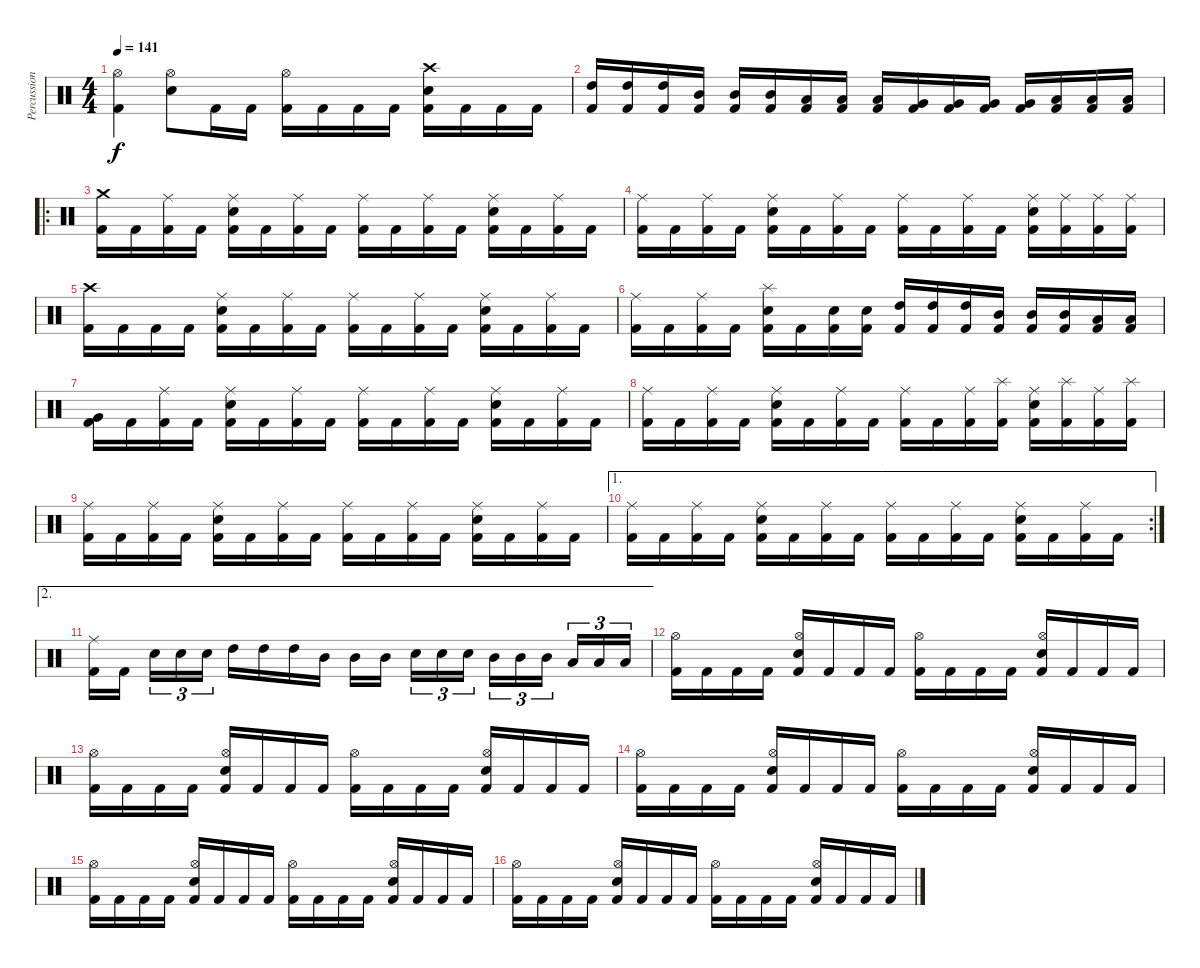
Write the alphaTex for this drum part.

\track ("Percussion" "Percussion") {instrument percussion}
\staff {score}
\articulation defaults
\ts (4 4)
\tempo 141
\clef neutral
\ks c
("Kick (hit) 2" "Hi-Hat (open)").4{dy f} ("Electric Snare (hit)" "Hi-Hat (open)").8 "Kick (hit) 2".16 "Kick (hit) 2".16 ("Kick (hit) 2" "Hi-Hat (open)").16 "Kick (hit) 2".16 "Kick (hit) 2".16 "Kick (hit) 2".16 ("Kick (hit) 2" "Electric Snare (hit)" "Crash high (hit)").16 "Kick (hit) 2".16 "Kick (hit) 2".16 "Kick (hit) 2".16 |
("Kick (hit) 2" "High Tom (hit)").16 ("Kick (hit) 2" "High Tom (hit)").16 ("Kick (hit) 2" "High Tom (hit)").16 ("Kick (hit) 2" "Mid Tom (hit)").16 ("Kick (hit) 2" "Mid Tom (hit)").16 ("Kick (hit) 2" "Mid Tom (hit)").16 ("Kick (hit) 2" "Low Tom (hit)").16 ("Kick (hit) 2" "Low Tom (hit)").16 ("Kick (hit) 2" "Low Tom (hit)").16 ("Kick (hit) 2" "Very Low Tom (hit)").16 ("Kick (hit) 2" "Very Low Tom (hit)").16 ("Kick (hit) 2" "Very Low Tom (hit)").16 ("Kick (hit) 2" "Very Low Tom (hit)").16 ("Kick (hit) 2" "Low Floor Tom (hit)").16 ("Kick (hit) 2" "Low Floor Tom (hit)").16 ("Kick (hit) 2" "Low Floor Tom (hit)").16 |
\ro
("Kick (hit) 2" "Crash medium (hit)").16 "Kick (hit) 2".16 ("Kick (hit) 2" "Ride (middle)").16 "Kick (hit) 2".16 ("Kick (hit) 2" "Electric Snare (hit)" "Ride (middle)").16 "Kick (hit) 2".16 ("Kick (hit) 2" "Ride (middle)").16 "Kick (hit) 2".16 ("Kick (hit) 2" "Ride (middle)").16 "Kick (hit) 2".16 ("Kick (hit) 2" "Ride (middle)").16 "Kick (hit) 2".16 ("Kick (hit) 2" "Electric Snare (hit)" "Ride (middle)").16 "Kick (hit) 2".16 ("Kick (hit) 2" "Ride (middle)").16 "Kick (hit) 2".16 |
("Kick (hit) 2" "Ride (middle)").16 "Kick (hit) 2".16 ("Kick (hit) 2" "Ride (middle)").16 "Kick (hit) 2".16 ("Kick (hit) 2" "Electric Snare (hit)" "Ride (middle)").16 "Kick (hit) 2".16 ("Kick (hit) 2" "Ride (middle)").16 "Kick (hit) 2".16 ("Kick (hit) 2" "Ride (middle)").16 "Kick (hit) 2".16 ("Kick (hit) 2" "Ride (middle)").16 "Kick (hit) 2".16 ("Kick (hit) 2" "Electric Snare (hit)" "Ride (middle)").16 ("Kick (hit) 2" "Ride (middle)").16 ("Kick (hit) 2" "Ride (middle)").16 ("Kick (hit) 2" "Ride (middle)").16 |
("Kick (hit) 2" "Crash high (hit)").16 "Kick (hit) 2".16 "Kick (hit) 2".16 "Kick (hit) 2".16 ("Kick (hit) 2" "Electric Snare (hit)" "Ride (middle)").16 "Kick (hit) 2".16 ("Kick (hit) 2" "Ride (middle)").16 "Kick (hit) 2".16 ("Kick (hit) 2" "Ride (middle)").16 "Kick (hit) 2".16 ("Kick (hit) 2" "Ride (middle)").16 "Kick (hit) 2".16 ("Kick (hit) 2" "Electric Snare (hit)" "Ride (middle)").16 "Kick (hit) 2".16 ("Kick (hit) 2" "Ride (middle)").16 "Kick (hit) 2".16 |
("Kick (hit) 2" "Ride (middle)").16 "Kick (hit) 2".16 ("Kick (hit) 2" "Ride (middle)").16 "Kick (hit) 2".16 ("Kick (hit) 2" "Electric Snare (hit)" "Splash (hit)").16 "Kick (hit) 2".16 ("Kick (hit) 2" "Electric Snare (hit)").16 ("Kick (hit) 2" "Electric Snare (hit)").16 ("Kick (hit) 2" "High Tom (hit)").16 ("Kick (hit) 2" "High Tom (hit)").16 ("Kick (hit) 2" "High Tom (hit)").16 ("Kick (hit) 2" "Mid Tom (hit)").16 ("Kick (hit) 2" "Mid Tom (hit)").16 ("Kick (hit) 2" "Mid Tom (hit)").16 ("Kick (hit) 2" "Low Tom (hit)").16 ("Kick (hit) 2" "Low Tom (hit)").16 |
("Kick (hit) 2" "Very Low Tom (hit)").16 "Kick (hit) 2".16 ("Kick (hit) 2" "Ride (middle)").16 "Kick (hit) 2".16 ("Kick (hit) 2" "Electric Snare (hit)" "Ride (middle)").16 "Kick (hit) 2".16 ("Kick (hit) 2" "Ride (middle)").16 "Kick (hit) 2".16 ("Kick (hit) 2" "Ride (middle)").16 "Kick (hit) 2".16 ("Kick (hit) 2" "Ride (middle)").16 "Kick (hit) 2".16 ("Kick (hit) 2" "Electric Snare (hit)" "Ride (middle)").16 "Kick (hit) 2".16 ("Kick (hit) 2" "Ride (middle)").16 "Kick (hit) 2".16 |
("Kick (hit) 2" "Ride (middle)").16 "Kick (hit) 2".16 ("Kick (hit) 2" "Ride (middle)").16 "Kick (hit) 2".16 ("Kick (hit) 2" "Electric Snare (hit)" "Ride (middle)").16 "Kick (hit) 2".16 ("Kick (hit) 2" "Ride (middle)").16 "Kick (hit) 2".16 ("Kick (hit) 2" "Ride (middle)").16 "Kick (hit) 2".16 ("Kick (hit) 2" "Ride (middle)").16 ("Kick (hit) 2" "Splash (hit)").16 ("Kick (hit) 2" "Electric Snare (hit)" "Ride (middle)").16 ("Kick (hit) 2" "Splash (hit)").16 ("Kick (hit) 2" "Ride (middle)").16 ("Kick (hit) 2" "Splash (hit)").16 |
("Kick (hit) 2" "Ride (middle)").16 "Kick (hit) 2".16 ("Kick (hit) 2" "Ride (middle)").16 "Kick (hit) 2".16 ("Kick (hit) 2" "Electric Snare (hit)" "Ride (middle)").16 "Kick (hit) 2".16 ("Kick (hit) 2" "Ride (middle)").16 "Kick (hit) 2".16 ("Kick (hit) 2" "Ride (middle)").16 "Kick (hit) 2".16 ("Kick (hit) 2" "Ride (middle)").16 "Kick (hit) 2".16 ("Kick (hit) 2" "Electric Snare (hit)" "Ride (middle)").16 "Kick (hit) 2".16 ("Kick (hit) 2" "Ride (middle)").16 "Kick (hit) 2".16 |
\ae 1
\rc 2
("Kick (hit) 2" "Ride (middle)").16 "Kick (hit) 2".16 ("Kick (hit) 2" "Ride (middle)").16 "Kick (hit) 2".16 ("Kick (hit) 2" "Electric Snare (hit)" "Ride (middle)").16 "Kick (hit) 2".16 ("Kick (hit) 2" "Ride (middle)").16 "Kick (hit) 2".16 ("Kick (hit) 2" "Ride (middle)").16 "Kick (hit) 2".16 ("Kick (hit) 2" "Ride (middle)").16 "Kick (hit) 2".16 ("Kick (hit) 2" "Electric Snare (hit)" "Ride (middle)").16 "Kick (hit) 2".16 ("Kick (hit) 2" "Ride (middle)").16 "Kick (hit) 2".16 |
\ae 2
("Kick (hit) 2" "Ride (middle)").16 "Kick (hit) 2".16 "Electric Snare (hit)".16{tu (3 2)} "Electric Snare (hit)".16{tu (3 2)} "Electric Snare (hit)".16{tu (3 2)} "High Tom (hit)".16 "High Tom (hit)".16 "High Tom (hit)".16 "Mid Tom (hit)".16 "Mid Tom (hit)".16 "Mid Tom (hit)".16 "Electric Snare (hit)".16{tu (3 2)} "Electric Snare (hit)".16{tu (3 2)} "Electric Snare (hit)".16{tu (3 2)} "Mid Tom (hit)".16{tu (3 2)} "Mid Tom (hit)".16{tu (3 2)} "Mid Tom (hit)".16{tu (3 2)} "Low Tom (hit)".16{tu (3 2)} "Low Tom (hit)".16{tu (3 2)} "Low Tom (hit)".16{tu (3 2)} |
("Kick (hit) 2" "Hi-Hat (open)").16 "Kick (hit) 2".16 "Kick (hit) 2".16 "Kick (hit) 2".16 ("Kick (hit) 2" "Electric Snare (hit)" "Hi-Hat (open)").16 "Kick (hit) 2".16 "Kick (hit) 2".16 "Kick (hit) 2".16 ("Kick (hit) 2" "Hi-Hat (open)").16 "Kick (hit) 2".16 "Kick (hit) 2".16 "Kick (hit) 2".16 ("Kick (hit) 2" "Electric Snare (hit)" "Hi-Hat (open)").16 "Kick (hit) 2".16 "Kick (hit) 2".16 "Kick (hit) 2".16 |
("Kick (hit) 2" "Hi-Hat (open)").16 "Kick (hit) 2".16 "Kick (hit) 2".16 "Kick (hit) 2".16 ("Kick (hit) 2" "Electric Snare (hit)" "Hi-Hat (open)").16 "Kick (hit) 2".16 "Kick (hit) 2".16 "Kick (hit) 2".16 ("Kick (hit) 2" "Hi-Hat (open)").16 "Kick (hit) 2".16 "Kick (hit) 2".16 "Kick (hit) 2".16 ("Kick (hit) 2" "Electric Snare (hit)" "Hi-Hat (open)").16 "Kick (hit) 2".16 "Kick (hit) 2".16 "Kick (hit) 2".16 |
("Kick (hit) 2" "Hi-Hat (open)").16 "Kick (hit) 2".16 "Kick (hit) 2".16 "Kick (hit) 2".16 ("Kick (hit) 2" "Electric Snare (hit)" "Hi-Hat (open)").16 "Kick (hit) 2".16 "Kick (hit) 2".16 "Kick (hit) 2".16 ("Kick (hit) 2" "Hi-Hat (open)").16 "Kick (hit) 2".16 "Kick (hit) 2".16 "Kick (hit) 2".16 ("Kick (hit) 2" "Electric Snare (hit)" "Hi-Hat (open)").16 "Kick (hit) 2".16 "Kick (hit) 2".16 "Kick (hit) 2".16 |
("Kick (hit) 2" "Hi-Hat (open)").16 "Kick (hit) 2".16 "Kick (hit) 2".16 "Kick (hit) 2".16 ("Kick (hit) 2" "Electric Snare (hit)" "Hi-Hat (open)").16 "Kick (hit) 2".16 "Kick (hit) 2".16 "Kick (hit) 2".16 ("Kick (hit) 2" "Hi-Hat (open)").16 "Kick (hit) 2".16 "Kick (hit) 2".16 "Kick (hit) 2".16 ("Kick (hit) 2" "Electric Snare (hit)" "Hi-Hat (open)").16 "Kick (hit) 2".16 "Kick (hit) 2".16 "Kick (hit) 2".16 |
("Kick (hit) 2" "Hi-Hat (open)").16 "Kick (hit) 2".16 "Kick (hit) 2".16 "Kick (hit) 2".16 ("Kick (hit) 2" "Electric Snare (hit)" "Hi-Hat (open)").16 "Kick (hit) 2".16 "Kick (hit) 2".16 "Kick (hit) 2".16 ("Kick (hit) 2" "Hi-Hat (open)").16 "Kick (hit) 2".16 "Kick (hit) 2".16 "Kick (hit) 2".16 ("Kick (hit) 2" "Electric Snare (hit)" "Hi-Hat (open)").16 "Kick (hit) 2".16 "Kick (hit) 2".16 "Kick (hit) 2".16
